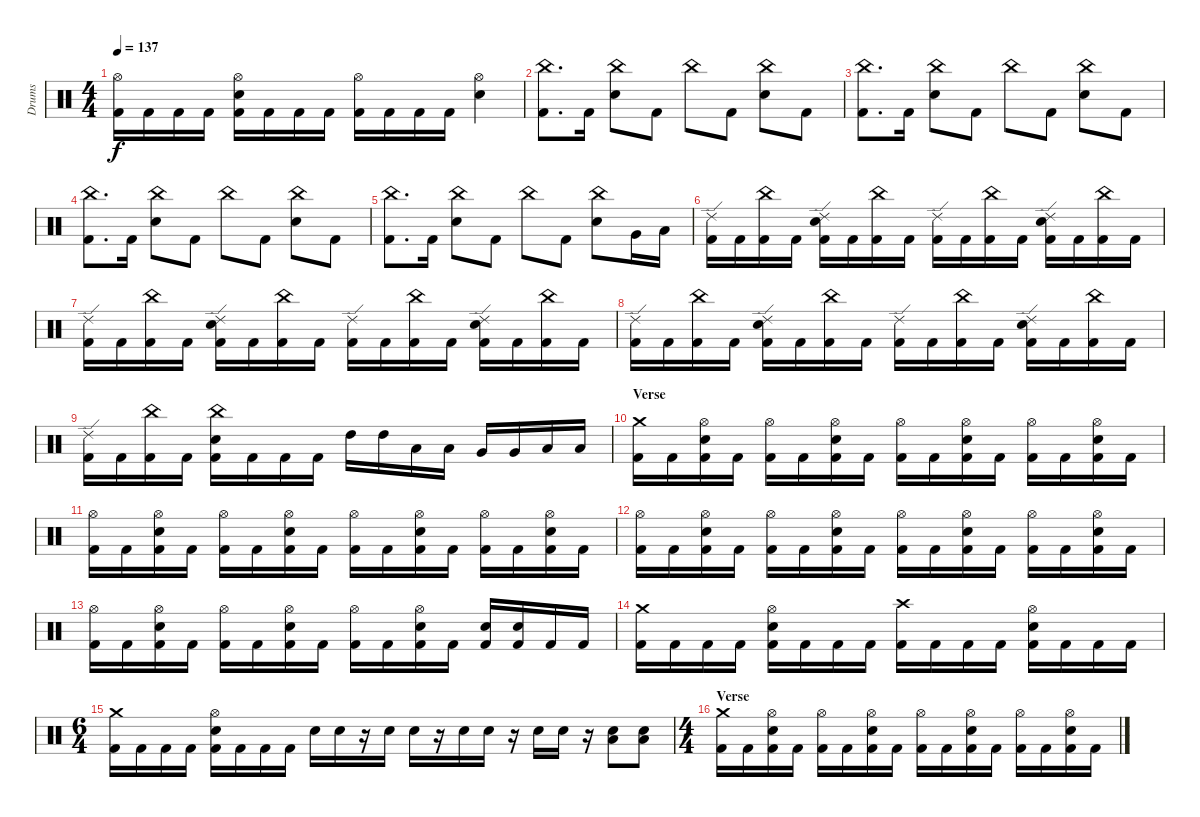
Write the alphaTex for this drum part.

\track ("Drums" "Drums") {instrument percussion}
\staff {score}
\articulation defaults
\ts (4 4)
\tempo 137
\clef neutral
\ks c
("Hi-Hat (open)" "Kick (hit) 2").16{dy f} "Kick (hit) 2".16 "Kick (hit) 2".16 "Kick (hit) 2".16 ("Electric Snare (hit)" "Hi-Hat (open)" "Kick (hit) 2").16 "Kick (hit) 2".16 "Kick (hit) 2".16 "Kick (hit) 2".16 ("Hi-Hat (open)" "Kick (hit) 2").16 "Kick (hit) 2".16 "Kick (hit) 2".16 "Kick (hit) 2".16 ("Electric Snare (hit)" "Hi-Hat (open)").4 |
("China (hit)" "Kick (hit) 2").8{d} "Kick (hit) 2".16 ("China (hit)" "Electric Snare (hit)").8 "Kick (hit) 2".8 "China (hit)".8 "Kick (hit) 2".8 ("China (hit)" "Electric Snare (hit)").8 "Kick (hit) 2".8 |
("China (hit)" "Kick (hit) 2").8{d} "Kick (hit) 2".16 ("China (hit)" "Electric Snare (hit)").8 "Kick (hit) 2".8 "China (hit)".8 "Kick (hit) 2".8 ("China (hit)" "Electric Snare (hit)").8 "Kick (hit) 2".8 |
("China (hit)" "Kick (hit) 2").8{d} "Kick (hit) 2".16 ("China (hit)" "Electric Snare (hit)").8 "Kick (hit) 2".8 "China (hit)".8 "Kick (hit) 2".8 ("China (hit)" "Electric Snare (hit)").8 "Kick (hit) 2".8 |
("China (hit)" "Kick (hit) 2").8{d} "Kick (hit) 2".16 ("China (hit)" "Electric Snare (hit)").8 "Kick (hit) 2".8 "China (hit)".8 "Kick (hit) 2".8 ("China (hit)" "Electric Snare (hit)").8 "Very Low Tom (hit)".16 "Low Floor Tom (hit)".16 |
("Ride (edge) 2" "Kick (hit) 2").16 "Kick (hit) 2".16 ("China (hit)" "Kick (hit) 2").16 "Kick (hit) 2".16 ("Ride (edge) 2" "Electric Snare (hit)" "Kick (hit) 2").16 "Kick (hit) 2".16 ("China (hit)" "Kick (hit) 2").16 "Kick (hit) 2".16 ("Ride (edge) 2" "Kick (hit) 2").16 "Kick (hit) 2".16 ("China (hit)" "Kick (hit) 2").16 "Kick (hit) 2".16 ("Ride (edge) 2" "Electric Snare (hit)" "Kick (hit) 2").16 "Kick (hit) 2".16 ("China (hit)" "Kick (hit) 2").16 "Kick (hit) 2".16 |
("Ride (edge) 2" "Kick (hit) 2").16 "Kick (hit) 2".16 ("China (hit)" "Kick (hit) 2").16 "Kick (hit) 2".16 ("Ride (edge) 2" "Electric Snare (hit)" "Kick (hit) 2").16 "Kick (hit) 2".16 ("China (hit)" "Kick (hit) 2").16 "Kick (hit) 2".16 ("Ride (edge) 2" "Kick (hit) 2").16 "Kick (hit) 2".16 ("China (hit)" "Kick (hit) 2").16 "Kick (hit) 2".16 ("Ride (edge) 2" "Electric Snare (hit)" "Kick (hit) 2").16 "Kick (hit) 2".16 ("China (hit)" "Kick (hit) 2").16 "Kick (hit) 2".16 |
("Ride (edge) 2" "Kick (hit) 2").16 "Kick (hit) 2".16 ("China (hit)" "Kick (hit) 2").16 "Kick (hit) 2".16 ("Ride (edge) 2" "Electric Snare (hit)" "Kick (hit) 2").16 "Kick (hit) 2".16 ("China (hit)" "Kick (hit) 2").16 "Kick (hit) 2".16 ("Ride (edge) 2" "Kick (hit) 2").16 "Kick (hit) 2".16 ("China (hit)" "Kick (hit) 2").16 "Kick (hit) 2".16 ("Ride (edge) 2" "Electric Snare (hit)" "Kick (hit) 2").16 "Kick (hit) 2".16 ("China (hit)" "Kick (hit) 2").16 "Kick (hit) 2".16 |
("Ride (edge) 2" "Kick (hit) 2").16 "Kick (hit) 2".16 ("China (hit)" "Kick (hit) 2").16 "Kick (hit) 2".16 ("China (hit)" "Electric Snare (hit)" "Kick (hit) 2").16 "Kick (hit) 2".16 "Kick (hit) 2".16 "Kick (hit) 2".16 "High Tom (hit)".16 "High Tom (hit)".16 "Low Tom (hit)".16 "Low Tom (hit)".16 "Very Low Tom (hit)".16 "Very Low Tom (hit)".16 "Low Floor Tom (hit)".16 "Low Floor Tom (hit)".16 |
\section ("" "Verse")
("Crash medium (hit)" "Kick (hit) 2").16 "Kick (hit) 2".16 ("Hi-Hat (open)" "Electric Snare (hit)" "Kick (hit) 2").16 "Kick (hit) 2".16 ("Hi-Hat (open)" "Kick (hit) 2").16 "Kick (hit) 2".16 ("Hi-Hat (open)" "Electric Snare (hit)" "Kick (hit) 2").16 "Kick (hit) 2".16 ("Hi-Hat (open)" "Kick (hit) 2").16 "Kick (hit) 2".16 ("Hi-Hat (open)" "Electric Snare (hit)" "Kick (hit) 2").16 "Kick (hit) 2".16 ("Hi-Hat (open)" "Kick (hit) 2").16 "Kick (hit) 2".16 ("Hi-Hat (open)" "Electric Snare (hit)" "Kick (hit) 2").16 "Kick (hit) 2".16 |
("Hi-Hat (open)" "Kick (hit) 2").16 "Kick (hit) 2".16 ("Hi-Hat (open)" "Electric Snare (hit)" "Kick (hit) 2").16 "Kick (hit) 2".16 ("Hi-Hat (open)" "Kick (hit) 2").16 "Kick (hit) 2".16 ("Hi-Hat (open)" "Electric Snare (hit)" "Kick (hit) 2").16 "Kick (hit) 2".16 ("Hi-Hat (open)" "Kick (hit) 2").16 "Kick (hit) 2".16 ("Hi-Hat (open)" "Electric Snare (hit)" "Kick (hit) 2").16 "Kick (hit) 2".16 ("Hi-Hat (open)" "Kick (hit) 2").16 "Kick (hit) 2".16 ("Hi-Hat (open)" "Electric Snare (hit)" "Kick (hit) 2").16 "Kick (hit) 2".16 |
("Hi-Hat (open)" "Kick (hit) 2").16 "Kick (hit) 2".16 ("Hi-Hat (open)" "Electric Snare (hit)" "Kick (hit) 2").16 "Kick (hit) 2".16 ("Hi-Hat (open)" "Kick (hit) 2").16 "Kick (hit) 2".16 ("Hi-Hat (open)" "Electric Snare (hit)" "Kick (hit) 2").16 "Kick (hit) 2".16 ("Hi-Hat (open)" "Kick (hit) 2").16 "Kick (hit) 2".16 ("Hi-Hat (open)" "Electric Snare (hit)" "Kick (hit) 2").16 "Kick (hit) 2".16 ("Hi-Hat (open)" "Kick (hit) 2").16 "Kick (hit) 2".16 ("Hi-Hat (open)" "Electric Snare (hit)" "Kick (hit) 2").16 "Kick (hit) 2".16 |
("Hi-Hat (open)" "Kick (hit) 2").16 "Kick (hit) 2".16 ("Hi-Hat (open)" "Electric Snare (hit)" "Kick (hit) 2").16 "Kick (hit) 2".16 ("Hi-Hat (open)" "Kick (hit) 2").16 "Kick (hit) 2".16 ("Hi-Hat (open)" "Electric Snare (hit)" "Kick (hit) 2").16 "Kick (hit) 2".16 ("Hi-Hat (open)" "Kick (hit) 2").16 "Kick (hit) 2".16 ("Hi-Hat (open)" "Electric Snare (hit)" "Kick (hit) 2").16 "Kick (hit) 2".16 ("Electric Snare (hit)" "Kick (hit) 2").16 ("Electric Snare (hit)" "Kick (hit) 2").16 "Kick (hit) 2".16 "Kick (hit) 2".16 |
("Kick (hit) 2" "Crash medium (hit)").16 "Kick (hit) 2".16 "Kick (hit) 2".16 "Kick (hit) 2".16 ("Kick (hit) 2" "Electric Snare (hit)" "Hi-Hat (open)").16 "Kick (hit) 2".16 "Kick (hit) 2".16 "Kick (hit) 2".16 ("Crash high (hit)" "Kick (hit) 2").16 "Kick (hit) 2".16 "Kick (hit) 2".16 "Kick (hit) 2".16 ("Kick (hit) 2" "Electric Snare (hit)" "Hi-Hat (open)").16 "Kick (hit) 2".16 "Kick (hit) 2".16 "Kick (hit) 2".16 |
\ts (6 4)
("Kick (hit) 2" "Crash medium (hit)").16 "Kick (hit) 2".16 "Kick (hit) 2".16 "Kick (hit) 2".16 ("Kick (hit) 2" "Electric Snare (hit)" "Hi-Hat (open)").16 "Kick (hit) 2".16 "Kick (hit) 2".16 "Kick (hit) 2".16 "Electric Snare (hit)".16 "Electric Snare (hit)".16 r.16 "Electric Snare (hit)".16 "Electric Snare (hit)".16 r.16 "Electric Snare (hit)".16 "Electric Snare (hit)".16 r.16 "Electric Snare (hit)".16 "Electric Snare (hit)".16 r.16 ("Low Floor Tom (hit)" "Electric Snare (hit)").8 ("Low Floor Tom (hit)" "Electric Snare (hit)").8 |
\ts (4 4)
\section ("" "Verse")
("Crash medium (hit)" "Kick (hit) 2").16 "Kick (hit) 2".16 ("Hi-Hat (open)" "Electric Snare (hit)" "Kick (hit) 2").16 "Kick (hit) 2".16 ("Hi-Hat (open)" "Kick (hit) 2").16 "Kick (hit) 2".16 ("Hi-Hat (open)" "Electric Snare (hit)" "Kick (hit) 2").16 "Kick (hit) 2".16 ("Hi-Hat (open)" "Kick (hit) 2").16 "Kick (hit) 2".16 ("Hi-Hat (open)" "Electric Snare (hit)" "Kick (hit) 2").16 "Kick (hit) 2".16 ("Hi-Hat (open)" "Kick (hit) 2").16 "Kick (hit) 2".16 ("Hi-Hat (open)" "Electric Snare (hit)" "Kick (hit) 2").16 "Kick (hit) 2".16
